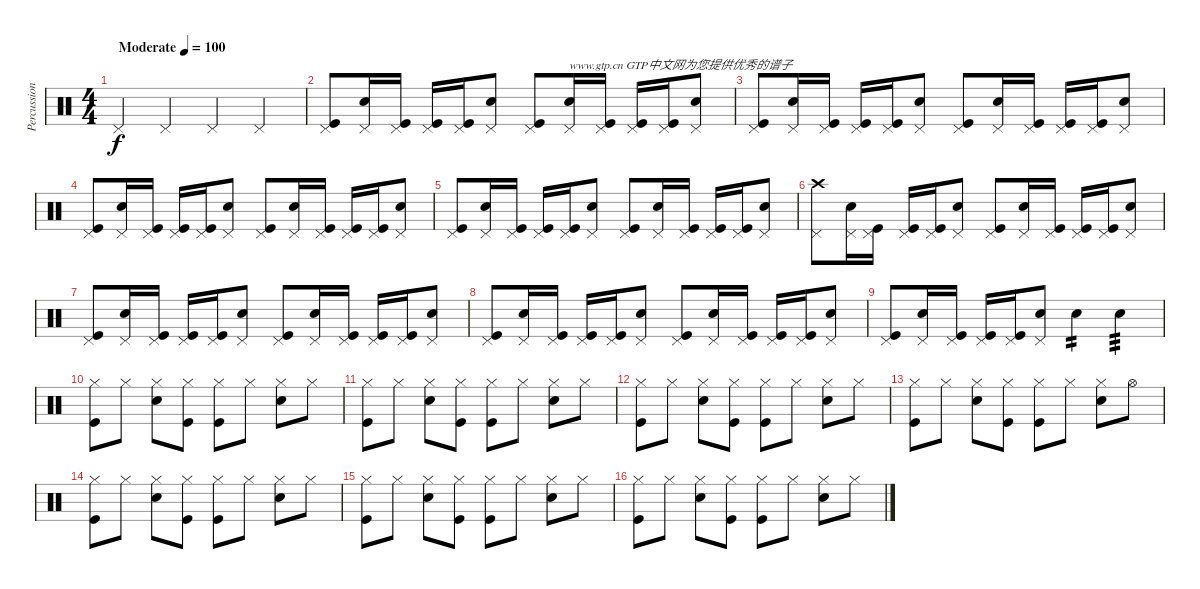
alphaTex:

\track ("Percussion" "Percussion") {instrument percussion}
\staff {score}
\articulation defaults
\ts (4 4)
\tempo (100 "Moderate")
\clef neutral
\ks c "Pedal Hi-Hat (hit)".4{dy f} "Pedal Hi-Hat (hit)".4 "Pedal Hi-Hat (hit)".4 "Pedal Hi-Hat (hit)".4
|
("Kick (hit)" "Pedal Hi-Hat (hit)").8 ("Snare (hit) 2" "Pedal Hi-Hat (hit)").16 ("Kick (hit)" "Pedal Hi-Hat (hit)").16 ("Kick (hit)" "Pedal Hi-Hat (hit)").16 ("Kick (hit)" "Pedal Hi-Hat (hit)").16 ("Snare (hit) 2" "Pedal Hi-Hat (hit)").8 ("Kick (hit)" "Pedal Hi-Hat (hit)").8 ("Snare (hit) 2" "Pedal Hi-Hat (hit)").16{txt "www.gtp.cn GTP中文网为您提供优秀的谱子"} ("Kick (hit)" "Pedal Hi-Hat (hit)").16 ("Kick (hit)" "Pedal Hi-Hat (hit)").16 ("Kick (hit)" "Pedal Hi-Hat (hit)").16 ("Snare (hit) 2" "Pedal Hi-Hat (hit)").8 |
("Kick (hit)" "Pedal Hi-Hat (hit)").8 ("Snare (hit) 2" "Pedal Hi-Hat (hit)").16 ("Kick (hit)" "Pedal Hi-Hat (hit)").16 ("Kick (hit)" "Pedal Hi-Hat (hit)").16 ("Kick (hit)" "Pedal Hi-Hat (hit)").16 ("Snare (hit) 2" "Pedal Hi-Hat (hit)").8 ("Kick (hit)" "Pedal Hi-Hat (hit)").8 ("Snare (hit) 2" "Pedal Hi-Hat (hit)").16 ("Kick (hit)" "Pedal Hi-Hat (hit)").16 ("Kick (hit)" "Pedal Hi-Hat (hit)").16 ("Kick (hit)" "Pedal Hi-Hat (hit)").16 ("Snare (hit) 2" "Pedal Hi-Hat (hit)").8 |
("Kick (hit)" "Pedal Hi-Hat (hit)").8 ("Snare (hit) 2" "Pedal Hi-Hat (hit)").16 ("Kick (hit)" "Pedal Hi-Hat (hit)").16 ("Kick (hit)" "Pedal Hi-Hat (hit)").16 ("Kick (hit)" "Pedal Hi-Hat (hit)").16 ("Snare (hit) 2" "Pedal Hi-Hat (hit)").8 ("Kick (hit)" "Pedal Hi-Hat (hit)").8 ("Snare (hit) 2" "Pedal Hi-Hat (hit)").16 ("Kick (hit)" "Pedal Hi-Hat (hit)").16 ("Kick (hit)" "Pedal Hi-Hat (hit)").16 ("Kick (hit)" "Pedal Hi-Hat (hit)").16 ("Snare (hit) 2" "Pedal Hi-Hat (hit)").8 |
("Kick (hit)" "Pedal Hi-Hat (hit)").8 ("Snare (hit) 2" "Pedal Hi-Hat (hit)").16 ("Kick (hit)" "Pedal Hi-Hat (hit)").16 ("Kick (hit)" "Pedal Hi-Hat (hit)").16 ("Kick (hit)" "Pedal Hi-Hat (hit)").16 ("Snare (hit) 2" "Pedal Hi-Hat (hit)").8 ("Kick (hit)" "Pedal Hi-Hat (hit)").8 ("Snare (hit) 2" "Pedal Hi-Hat (hit)").16 ("Kick (hit)" "Pedal Hi-Hat (hit)").16 ("Kick (hit)" "Pedal Hi-Hat (hit)").16 ("Kick (hit)" "Pedal Hi-Hat (hit)").16 ("Snare (hit) 2" "Pedal Hi-Hat (hit)").8 |
("Crash high (hit)" "Pedal Hi-Hat (hit)").8 ("Snare (hit) 2" "Pedal Hi-Hat (hit)").16 ("Kick (hit)" "Pedal Hi-Hat (hit)").16 ("Kick (hit)" "Pedal Hi-Hat (hit)").16 ("Kick (hit)" "Pedal Hi-Hat (hit)").16 ("Snare (hit) 2" "Pedal Hi-Hat (hit)").8 ("Kick (hit)" "Pedal Hi-Hat (hit)").8 ("Snare (hit) 2" "Pedal Hi-Hat (hit)").16 ("Kick (hit)" "Pedal Hi-Hat (hit)").16 ("Kick (hit)" "Pedal Hi-Hat (hit)").16 ("Kick (hit)" "Pedal Hi-Hat (hit)").16 ("Snare (hit) 2" "Pedal Hi-Hat (hit)").8 |
("Kick (hit)" "Pedal Hi-Hat (hit)").8 ("Snare (hit) 2" "Pedal Hi-Hat (hit)").16 ("Kick (hit)" "Pedal Hi-Hat (hit)").16 ("Kick (hit)" "Pedal Hi-Hat (hit)").16 ("Kick (hit)" "Pedal Hi-Hat (hit)").16 ("Snare (hit) 2" "Pedal Hi-Hat (hit)").8 ("Kick (hit)" "Pedal Hi-Hat (hit)").8 ("Snare (hit) 2" "Pedal Hi-Hat (hit)").16 ("Kick (hit)" "Pedal Hi-Hat (hit)").16 ("Kick (hit)" "Pedal Hi-Hat (hit)").16 ("Kick (hit)" "Pedal Hi-Hat (hit)").16 ("Snare (hit) 2" "Pedal Hi-Hat (hit)").8 |
("Kick (hit)" "Pedal Hi-Hat (hit)").8 ("Snare (hit) 2" "Pedal Hi-Hat (hit)").16 ("Kick (hit)" "Pedal Hi-Hat (hit)").16 ("Kick (hit)" "Pedal Hi-Hat (hit)").16 ("Kick (hit)" "Pedal Hi-Hat (hit)").16 ("Snare (hit) 2" "Pedal Hi-Hat (hit)").8 ("Kick (hit)" "Pedal Hi-Hat (hit)").8 ("Snare (hit) 2" "Pedal Hi-Hat (hit)").16 ("Kick (hit)" "Pedal Hi-Hat (hit)").16 ("Kick (hit)" "Pedal Hi-Hat (hit)").16 ("Kick (hit)" "Pedal Hi-Hat (hit)").16 ("Snare (hit) 2" "Pedal Hi-Hat (hit)").8 |
("Kick (hit)" "Pedal Hi-Hat (hit)").8 ("Snare (hit) 2" "Pedal Hi-Hat (hit)").16 ("Kick (hit)" "Pedal Hi-Hat (hit)").16 ("Kick (hit)" "Pedal Hi-Hat (hit)").16 ("Kick (hit)" "Pedal Hi-Hat (hit)").16 ("Snare (hit) 2" "Pedal Hi-Hat (hit)").8 "Electric Snare (hit)".4{tp 2} "Electric Snare (hit)".4{tp 3} |
("Kick (hit)" "Hi-Hat (closed)").8 "Hi-Hat (closed)".8 ("Electric Snare (hit)" "Hi-Hat (closed)").8 ("Kick (hit)" "Hi-Hat (closed)").8 ("Kick (hit)" "Hi-Hat (closed)").8 "Hi-Hat (closed)".8 ("Electric Snare (hit)" "Hi-Hat (closed)").8 "Hi-Hat (closed)".8 |
("Kick (hit)" "Hi-Hat (closed)").8 "Hi-Hat (closed)".8 ("Electric Snare (hit)" "Hi-Hat (closed)").8 ("Kick (hit)" "Hi-Hat (closed)").8 ("Kick (hit)" "Hi-Hat (closed)").8 "Hi-Hat (closed)".8 ("Electric Snare (hit)" "Hi-Hat (closed)").8 "Hi-Hat (closed)".8 |
("Kick (hit)" "Hi-Hat (closed)").8 "Hi-Hat (closed)".8 ("Electric Snare (hit)" "Hi-Hat (closed)").8 ("Kick (hit)" "Hi-Hat (closed)").8 ("Kick (hit)" "Hi-Hat (closed)").8 "Hi-Hat (closed)".8 ("Electric Snare (hit)" "Hi-Hat (closed)").8 "Hi-Hat (closed)".8 |
("Kick (hit)" "Hi-Hat (closed)").8 "Hi-Hat (closed)".8 ("Electric Snare (hit)" "Hi-Hat (closed)").8 ("Kick (hit)" "Hi-Hat (closed)").8 ("Kick (hit)" "Hi-Hat (closed)").8 "Hi-Hat (closed)".8 ("Electric Snare (hit)" "Hi-Hat (closed)").8 "Hi-Hat (open)".8 |
("Kick (hit)" "Hi-Hat (closed)").8 "Hi-Hat (closed)".8 ("Electric Snare (hit)" "Hi-Hat (closed)").8 ("Kick (hit)" "Hi-Hat (closed)").8 ("Kick (hit)" "Hi-Hat (closed)").8 "Hi-Hat (closed)".8 ("Electric Snare (hit)" "Hi-Hat (closed)").8 "Hi-Hat (closed)".8 |
("Kick (hit)" "Hi-Hat (closed)").8 "Hi-Hat (closed)".8 ("Electric Snare (hit)" "Hi-Hat (closed)").8 ("Kick (hit)" "Hi-Hat (closed)").8 ("Kick (hit)" "Hi-Hat (closed)").8 "Hi-Hat (closed)".8 ("Electric Snare (hit)" "Hi-Hat (closed)").8 "Hi-Hat (closed)".8 |
("Kick (hit)" "Hi-Hat (closed)").8 "Hi-Hat (closed)".8 ("Electric Snare (hit)" "Hi-Hat (closed)").8 ("Kick (hit)" "Hi-Hat (closed)").8 ("Kick (hit)" "Hi-Hat (closed)").8 "Hi-Hat (closed)".8 ("Electric Snare (hit)" "Hi-Hat (closed)").8 "Hi-Hat (closed)".8
